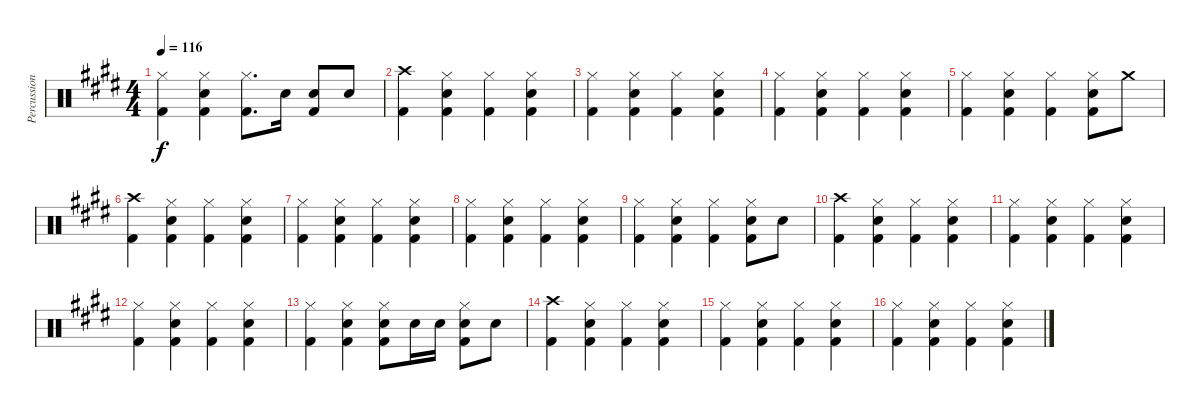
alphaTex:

\track ("Percussion" "Percussion") {instrument percussion}
\staff {score}
\articulation defaults
\ts (4 4)
\tempo 116
\clef neutral
\ks e
("Hi-Hat (closed)" "Kick (hit) 2").4{dy f} ("Hi-Hat (closed)" "Snare (hit) 2" "Kick (hit) 2").4 ("Hi-Hat (closed)" "Kick (hit) 2").8{d} "Snare (hit) 2".16 ("Snare (hit) 2" "Kick (hit) 2").8 "Snare (hit) 2".8 |
("Crash high (hit)" "Kick (hit) 2").4 ("Hi-Hat (closed)" "Snare (hit) 2" "Kick (hit) 2").4 ("Hi-Hat (closed)" "Kick (hit) 2").4 ("Hi-Hat (closed)" "Snare (hit) 2" "Kick (hit) 2").4 |
("Hi-Hat (closed)" "Kick (hit) 2").4 ("Hi-Hat (closed)" "Snare (hit) 2" "Kick (hit) 2").4 ("Hi-Hat (closed)" "Kick (hit) 2").4 ("Hi-Hat (closed)" "Snare (hit) 2" "Kick (hit) 2").4 |
("Hi-Hat (closed)" "Kick (hit) 2").4 ("Hi-Hat (closed)" "Snare (hit) 2" "Kick (hit) 2").4 ("Hi-Hat (closed)" "Kick (hit) 2").4 ("Hi-Hat (closed)" "Snare (hit) 2" "Kick (hit) 2").4 |
("Hi-Hat (closed)" "Kick (hit) 2").4 ("Hi-Hat (closed)" "Snare (hit) 2" "Kick (hit) 2").4 ("Hi-Hat (closed)" "Kick (hit) 2").4 ("Hi-Hat (closed)" "Snare (hit) 2" "Kick (hit) 2").8 "Crash medium (hit)".8 |
("Crash high (hit)" "Kick (hit) 2").4 ("Hi-Hat (closed)" "Snare (hit) 2" "Kick (hit) 2").4 ("Hi-Hat (closed)" "Kick (hit) 2").4 ("Hi-Hat (closed)" "Snare (hit) 2" "Kick (hit) 2").4 |
("Hi-Hat (closed)" "Kick (hit) 2").4 ("Hi-Hat (closed)" "Snare (hit) 2" "Kick (hit) 2").4 ("Hi-Hat (closed)" "Kick (hit) 2").4 ("Hi-Hat (closed)" "Snare (hit) 2" "Kick (hit) 2").4 |
("Hi-Hat (closed)" "Kick (hit) 2").4 ("Hi-Hat (closed)" "Snare (hit) 2" "Kick (hit) 2").4 ("Hi-Hat (closed)" "Kick (hit) 2").4 ("Hi-Hat (closed)" "Snare (hit) 2" "Kick (hit) 2").4 |
("Hi-Hat (closed)" "Kick (hit) 2").4 ("Hi-Hat (closed)" "Snare (hit) 2" "Kick (hit) 2").4 ("Hi-Hat (closed)" "Kick (hit) 2").4 ("Hi-Hat (closed)" "Snare (hit) 2" "Kick (hit) 2").8 "Snare (hit) 2".8 |
("Crash high (hit)" "Kick (hit) 2").4 ("Hi-Hat (closed)" "Snare (hit) 2" "Kick (hit) 2").4 ("Hi-Hat (closed)" "Kick (hit) 2").4 ("Hi-Hat (closed)" "Snare (hit) 2" "Kick (hit) 2").4 |
("Hi-Hat (closed)" "Kick (hit) 2").4 ("Hi-Hat (closed)" "Snare (hit) 2" "Kick (hit) 2").4 ("Hi-Hat (closed)" "Kick (hit) 2").4 ("Hi-Hat (closed)" "Snare (hit) 2" "Kick (hit) 2").4 |
("Hi-Hat (closed)" "Kick (hit) 2").4 ("Hi-Hat (closed)" "Snare (hit) 2" "Kick (hit) 2").4 ("Hi-Hat (closed)" "Kick (hit) 2").4 ("Hi-Hat (closed)" "Snare (hit) 2" "Kick (hit) 2").4 |
("Hi-Hat (closed)" "Kick (hit) 2").4 ("Hi-Hat (closed)" "Snare (hit) 2" "Kick (hit) 2").4 ("Hi-Hat (closed)" "Snare (hit) 2" "Kick (hit) 2").8 "Snare (hit) 2".16 "Snare (hit) 2".16 ("Hi-Hat (closed)" "Snare (hit) 2" "Kick (hit) 2").8 "Snare (hit) 2".8 |
("Crash high (hit)" "Kick (hit) 2").4 ("Hi-Hat (closed)" "Snare (hit) 2" "Kick (hit) 2").4 ("Hi-Hat (closed)" "Kick (hit) 2").4 ("Hi-Hat (closed)" "Snare (hit) 2" "Kick (hit) 2").4 |
("Hi-Hat (closed)" "Kick (hit) 2").4 ("Hi-Hat (closed)" "Snare (hit) 2" "Kick (hit) 2").4 ("Hi-Hat (closed)" "Kick (hit) 2").4 ("Hi-Hat (closed)" "Snare (hit) 2" "Kick (hit) 2").4 |
("Hi-Hat (closed)" "Kick (hit) 2").4 ("Hi-Hat (closed)" "Snare (hit) 2" "Kick (hit) 2").4 ("Hi-Hat (closed)" "Kick (hit) 2").4 ("Hi-Hat (closed)" "Snare (hit) 2" "Kick (hit) 2").4
